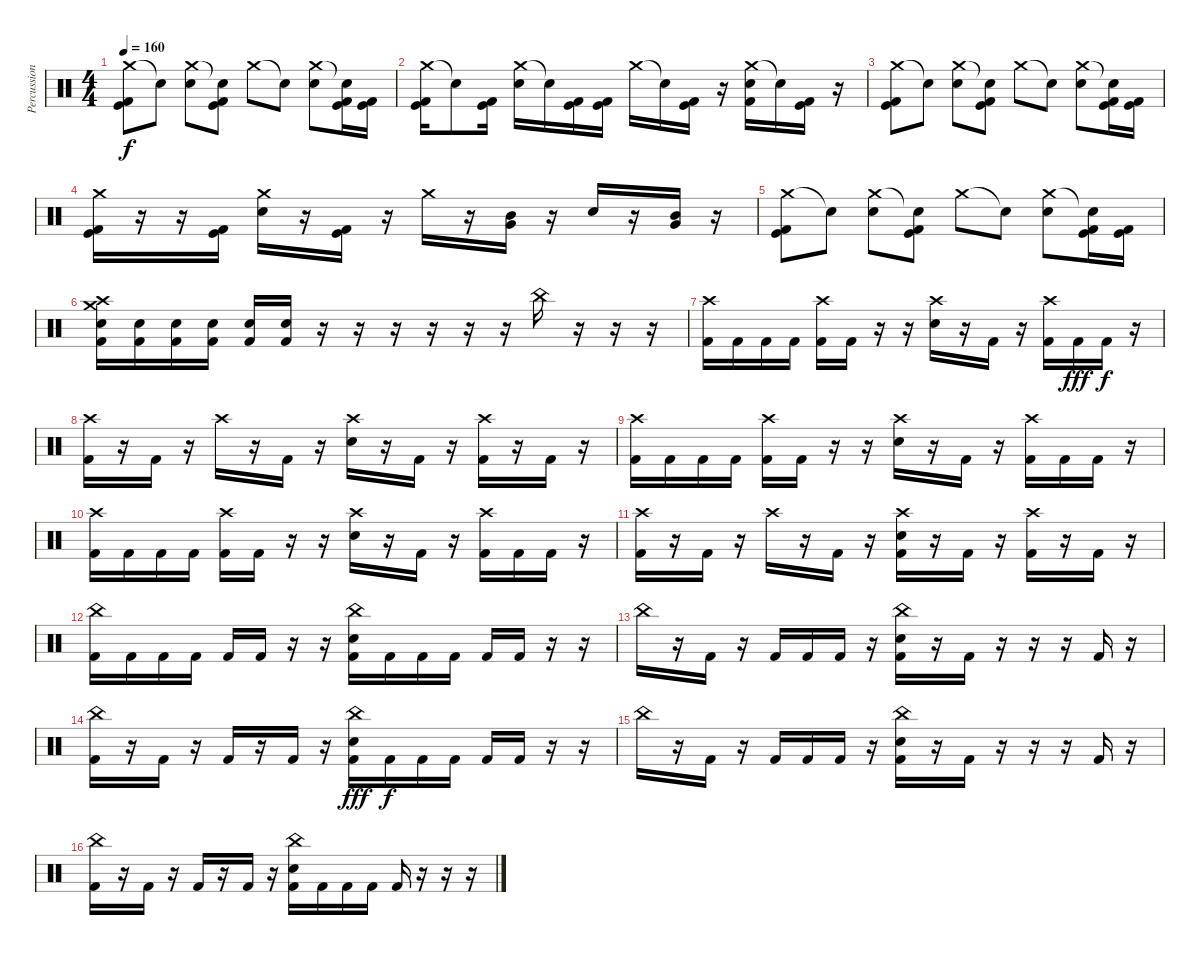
\track ("Percussion" "Percussion") {instrument percussion}
\staff {score}
\articulation defaults
\ts (4 4)
\tempo 160
\clef neutral
\ks c
("Crash medium (hit)" "Kick (hit)" "Kick (hit) 2").8{dy f} "Snare (hit)"{t}.8 ("Crash medium (hit)" "Snare (hit) 2").8 ("Snare (hit)"{t} "Kick (hit)" "Kick (hit) 2").8 "Crash medium (hit)".8 "Snare (hit)"{t}.8 ("Crash medium (hit)" "Snare (hit) 2").8 ("Snare (hit)"{t} "Kick (hit)" "Kick (hit) 2").16 ("Kick (hit)" "Kick (hit) 2").16 |
("Crash medium (hit)" "Kick (hit)" "Kick (hit) 2").16 "Snare (hit)"{t}.8 ("Kick (hit)" "Kick (hit) 2").16 ("Crash medium (hit)" "Snare (hit) 2").16 "Snare (hit)"{t}.16 ("Kick (hit)" "Kick (hit) 2").16 ("Kick (hit)" "Kick (hit) 2").16 "Crash medium (hit)".16 "Snare (hit)"{t}.16 ("Kick (hit)" "Kick (hit) 2").16 r.16 ("Crash medium (hit)" "Snare (hit) 2" "Kick (hit) 2").16 "Snare (hit)"{t}.16 ("Kick (hit)" "Kick (hit) 2").16 r.16 |
("Crash medium (hit)" "Kick (hit)" "Kick (hit) 2").8 "Snare (hit)"{t}.8 ("Crash medium (hit)" "Snare (hit) 2").8 ("Snare (hit)"{t} "Kick (hit)" "Kick (hit) 2").8 "Crash medium (hit)".8 "Snare (hit)"{t}.8 ("Crash medium (hit)" "Snare (hit) 2").8 ("Snare (hit)"{t} "Kick (hit)" "Kick (hit) 2").16 ("Kick (hit)" "Kick (hit) 2").16 |
("Crash medium (hit)" "Kick (hit)" "Kick (hit) 2").16 r.16 r.16 ("Kick (hit)" "Kick (hit) 2").16 ("Crash medium (hit)" "Snare (hit) 2").16 r.16 ("Kick (hit)" "Kick (hit) 2").16 r.16 "Crash medium (hit)".16 r.16 ("Mid Tom (hit)" "Very Low Tom (hit)").16 r.16 "Snare (hit) 2".16 r.16 ("Mid Tom (hit)" "Very Low Tom (hit)").16 r.16 |
("Crash medium (hit)" "Kick (hit)" "Kick (hit) 2").8 "Snare (hit)"{t}.8 ("Crash medium (hit)" "Snare (hit) 2").8 ("Snare (hit)"{t} "Kick (hit)" "Kick (hit) 2").8 "Crash medium (hit)".8 "Snare (hit)"{t}.8 ("Crash medium (hit)" "Snare (hit) 2").8 ("Snare (hit)"{t} "Kick (hit)" "Kick (hit) 2").16 ("Kick (hit)" "Kick (hit) 2").16 |
("Crash medium (hit)" "Crash high (hit)" "Snare (hit) 2" "Kick (hit) 2").16 ("Snare (hit) 2" "Kick (hit) 2").16 ("Snare (hit) 2" "Kick (hit) 2").16 ("Snare (hit) 2" "Kick (hit) 2").16 ("Snare (hit) 2" "Kick (hit) 2").16 ("Snare (hit) 2" "Kick (hit) 2").16 r.16 r.16 r.16 r.16 r.16 r.16 "China (hit)".16 r.16 r.16 r.16 |
("Crash high (hit)" "Kick (hit) 2").16 "Kick (hit) 2".16 "Kick (hit) 2".16 "Kick (hit) 2".16 ("Crash high (hit)" "Kick (hit) 2").16 "Kick (hit) 2".16 r.16 r.16 ("Crash high (hit)" "Snare (hit) 2").16 r.16 "Kick (hit) 2".16 r.16 ("Crash high (hit)" "Kick (hit) 2").16 "Kick (hit) 2".16{dy fff} "Kick (hit) 2".16{dy f} r.16 |
("Crash high (hit)" "Kick (hit) 2").16 r.16 "Kick (hit) 2".16 r.16 "Crash high (hit)".16 r.16 "Kick (hit) 2".16 r.16 ("Crash high (hit)" "Snare (hit) 2").16 r.16 "Kick (hit) 2".16 r.16 ("Crash high (hit)" "Kick (hit) 2").16 r.16 "Kick (hit) 2".16 r.16 |
("Crash high (hit)" "Kick (hit) 2").16 "Kick (hit) 2".16 "Kick (hit) 2".16 "Kick (hit) 2".16 ("Crash high (hit)" "Kick (hit) 2").16 "Kick (hit) 2".16 r.16 r.16 ("Crash high (hit)" "Snare (hit) 2").16 r.16 "Kick (hit) 2".16 r.16 ("Crash high (hit)" "Kick (hit) 2").16 "Kick (hit) 2".16 "Kick (hit) 2".16 r.16 |
("Crash high (hit)" "Kick (hit) 2").16 "Kick (hit) 2".16 "Kick (hit) 2".16 "Kick (hit) 2".16 ("Crash high (hit)" "Kick (hit) 2").16 "Kick (hit) 2".16 r.16 r.16 ("Crash high (hit)" "Snare (hit) 2").16 r.16 "Kick (hit) 2".16 r.16 ("Crash high (hit)" "Kick (hit) 2").16 "Kick (hit) 2".16 "Kick (hit) 2".16 r.16 |
("Crash high (hit)" "Kick (hit) 2").16 r.16 "Kick (hit) 2".16 r.16 "Crash high (hit)".16 r.16 "Kick (hit) 2".16 r.16 ("Crash high (hit)" "Snare (hit) 2" "Kick (hit) 2").16 r.16 "Kick (hit) 2".16 r.16 ("Crash high (hit)" "Kick (hit) 2").16 r.16 "Kick (hit) 2".16 r.16 |
("China (hit)" "Kick (hit) 2").16 "Kick (hit) 2".16 "Kick (hit) 2".16 "Kick (hit) 2".16 "Kick (hit) 2".16 "Kick (hit) 2".16 r.16 r.16 ("China (hit)" "Snare (hit) 2" "Kick (hit) 2").16 "Kick (hit) 2".16 "Kick (hit) 2".16 "Kick (hit) 2".16 "Kick (hit) 2".16 "Kick (hit) 2".16 r.16 r.16 |
"China (hit)".16 r.16 "Kick (hit) 2".16 r.16 "Kick (hit) 2".16 "Kick (hit) 2".16 "Kick (hit) 2".16 r.16 ("China (hit)" "Snare (hit) 2" "Kick (hit) 2").16 r.16 "Kick (hit) 2".16 r.16 r.16 r.16 "Kick (hit) 2".16 r.16 |
("China (hit)" "Kick (hit) 2").16 r.16 "Kick (hit) 2".16 r.16 "Kick (hit) 2".16 r.16 "Kick (hit) 2".16 r.16 ("China (hit)" "Snare (hit) 2" "Kick (hit) 2").16{dy fff} "Kick (hit) 2".16{dy f} "Kick (hit) 2".16 "Kick (hit) 2".16 "Kick (hit) 2".16 "Kick (hit) 2".16 r.16 r.16 |
"China (hit)".16 r.16 "Kick (hit) 2".16 r.16 "Kick (hit) 2".16 "Kick (hit) 2".16 "Kick (hit) 2".16 r.16 ("China (hit)" "Snare (hit) 2" "Kick (hit) 2").16 r.16 "Kick (hit) 2".16 r.16 r.16 r.16 "Kick (hit) 2".16 r.16 |
("China (hit)" "Kick (hit) 2").16 r.16 "Kick (hit) 2".16 r.16 "Kick (hit) 2".16 r.16 "Kick (hit) 2".16 r.16 ("China (hit)" "Snare (hit) 2" "Kick (hit) 2").16 "Kick (hit) 2".16 "Kick (hit) 2".16 "Kick (hit) 2".16 "Kick (hit) 2".16 r.16 r.16 r.16
